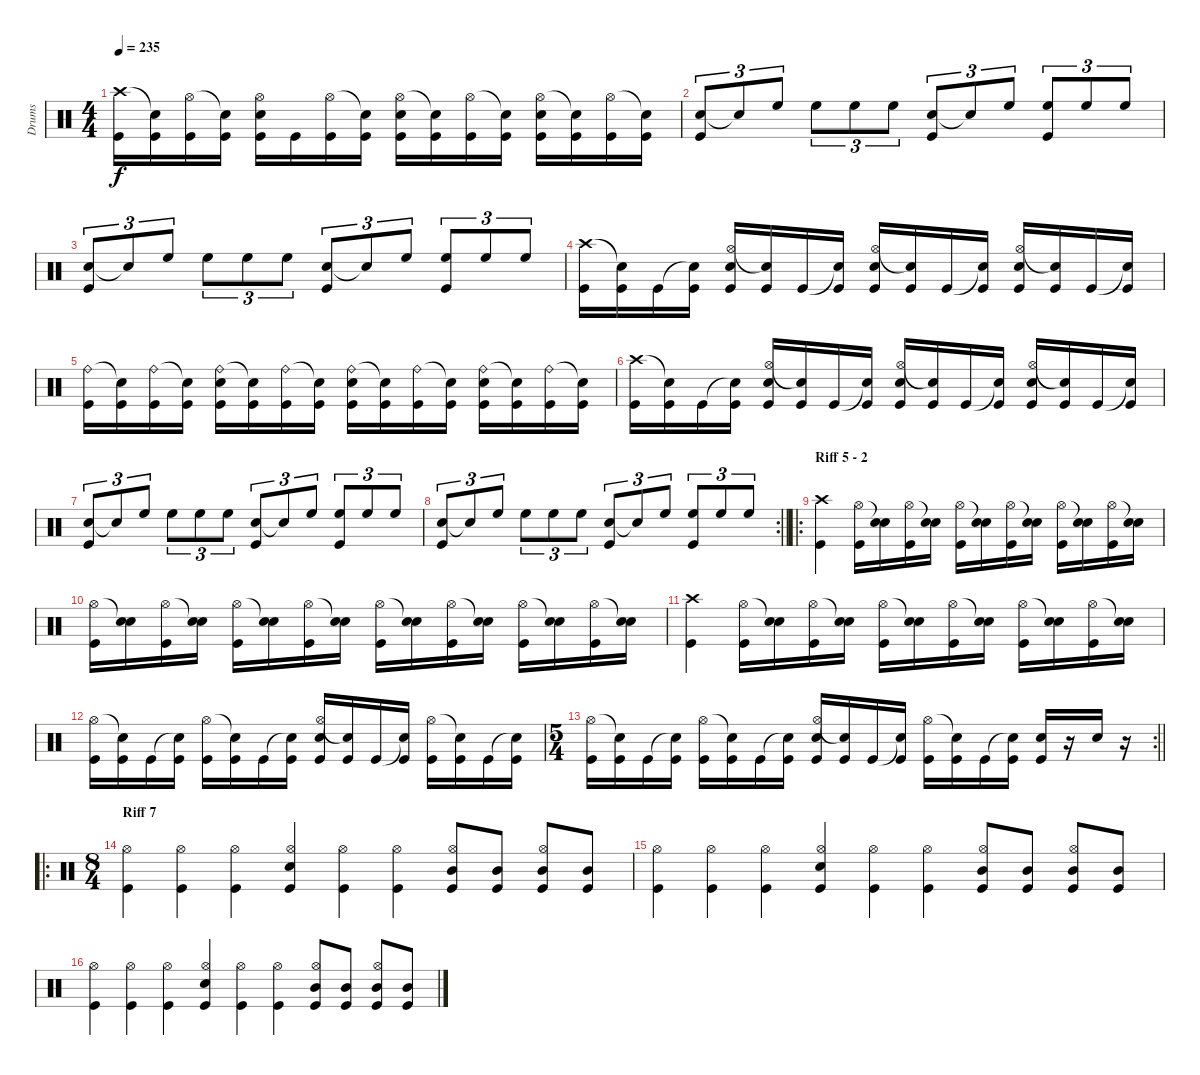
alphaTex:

\track ("Drums" "Drums") {instrument percussion}
\staff {score}
\articulation defaults
\ts (4 4)
\tempo 235
\clef neutral
\ks c
("Crash high (hit)" "Kick (hit)").16{dy f} ("Snare (hit)"{t} "Kick (hit)").16 ("Hi-Hat (open)" "Kick (hit)").16 ("Snare (hit)"{t} "Kick (hit)").16 ("Hi-Hat (open)" "Electric Snare (hit)" "Kick (hit)").16 "Kick (hit)".16 ("Hi-Hat (open)" "Kick (hit)").16 ("Snare (hit)"{t} "Kick (hit)").16 ("Hi-Hat (open)" "Electric Snare (hit)" "Kick (hit)").16 ("Snare (hit)"{t} "Kick (hit)").16 ("Hi-Hat (open)" "Kick (hit)").16 ("Snare (hit)"{t} "Kick (hit)").16 ("Hi-Hat (open)" "Electric Snare (hit)" "Kick (hit)").16 ("Snare (hit)"{t} "Kick (hit)").16 ("Hi-Hat (open)" "Kick (hit)").16 ("Snare (hit)"{t} "Kick (hit)").16 |
("Electric Snare (hit)" "Kick (hit)").8{tu (3 2)} "Snare (hit)"{t}.8{tu (3 2)} "High Floor Tom (hit)".8{tu (3 2)} "High Floor Tom (hit)".8{tu (3 2)} "High Floor Tom (hit)".8{tu (3 2)} "High Floor Tom (hit)".8{tu (3 2)} ("Electric Snare (hit)" "Kick (hit)").8{tu (3 2)} "Snare (hit)"{t}.8{tu (3 2)} "High Floor Tom (hit)".8{tu (3 2)} ("High Floor Tom (hit)" "Kick (hit)").8{tu (3 2)} "High Floor Tom (hit)".8{tu (3 2)} "High Floor Tom (hit)".8{tu (3 2)} |
("Electric Snare (hit)" "Kick (hit)").8{tu (3 2)} "Snare (hit)"{t}.8{tu (3 2)} "High Floor Tom (hit)".8{tu (3 2)} "High Floor Tom (hit)".8{tu (3 2)} "High Floor Tom (hit)".8{tu (3 2)} "High Floor Tom (hit)".8{tu (3 2)} ("Electric Snare (hit)" "Kick (hit)").8{tu (3 2)} "Snare (hit)"{t}.8{tu (3 2)} "High Floor Tom (hit)".8{tu (3 2)} ("High Floor Tom (hit)" "Kick (hit)").8{tu (3 2)} "High Floor Tom (hit)".8{tu (3 2)} "High Floor Tom (hit)".8{tu (3 2)} |
("Crash high (hit)" "Kick (hit)").16 ("Snare (hit)"{t} "Kick (hit)").16 "Kick (hit)".16 ("Snare (hit)"{t} "Kick (hit)").16 ("Hi-Hat (open)" "Electric Snare (hit)" "Kick (hit)").16 ("Snare (hit)"{t} "Kick (hit)").16 "Kick (hit)".16 ("Snare (hit)"{t} "Kick (hit)").16 ("Hi-Hat (open)" "Electric Snare (hit)" "Kick (hit)").16 ("Snare (hit)"{t} "Kick (hit)").16 "Kick (hit)".16 ("Snare (hit)"{t} "Kick (hit)").16 ("Hi-Hat (open)" "Electric Snare (hit)" "Kick (hit)").16 ("Snare (hit)"{t} "Kick (hit)").16 "Kick (hit)".16 ("Snare (hit)"{t} "Kick (hit)").16 |
("Ride (bell)" "Kick (hit)").16 ("Snare (hit)"{t} "Kick (hit)").16 ("Ride (bell)" "Kick (hit)").16 ("Snare (hit)"{t} "Kick (hit)").16 ("Ride (bell)" "Electric Snare (hit)" "Kick (hit)").16 ("Snare (hit)"{t} "Kick (hit)").16 ("Ride (bell)" "Kick (hit)").16 ("Snare (hit)"{t} "Kick (hit)").16 ("Ride (bell)" "Electric Snare (hit)" "Kick (hit)").16 ("Snare (hit)"{t} "Kick (hit)").16 ("Ride (bell)" "Kick (hit)").16 ("Snare (hit)"{t} "Kick (hit)").16 ("Ride (bell)" "Electric Snare (hit)" "Kick (hit)").16 ("Snare (hit)"{t} "Kick (hit)").16 ("Ride (bell)" "Kick (hit)").16 ("Snare (hit)"{t} "Kick (hit)").16 |
("Crash high (hit)" "Kick (hit)").16 ("Snare (hit)"{t} "Kick (hit)").16 "Kick (hit)".16 ("Snare (hit)"{t} "Kick (hit)").16 ("Hi-Hat (open)" "Electric Snare (hit)" "Kick (hit)").16 ("Snare (hit)"{t} "Kick (hit)").16 "Kick (hit)".16 ("Snare (hit)"{t} "Kick (hit)").16 ("Hi-Hat (open)" "Electric Snare (hit)" "Kick (hit)").16 ("Snare (hit)"{t} "Kick (hit)").16 "Kick (hit)".16 ("Snare (hit)"{t} "Kick (hit)").16 ("Hi-Hat (open)" "Electric Snare (hit)" "Kick (hit)").16 ("Snare (hit)"{t} "Kick (hit)").16 "Kick (hit)".16 ("Snare (hit)"{t} "Kick (hit)").16 |
("Electric Snare (hit)" "Kick (hit)").8{tu (3 2)} "Snare (hit)"{t}.8{tu (3 2)} "High Floor Tom (hit)".8{tu (3 2)} "High Floor Tom (hit)".8{tu (3 2)} "High Floor Tom (hit)".8{tu (3 2)} "High Floor Tom (hit)".8{tu (3 2)} ("Electric Snare (hit)" "Kick (hit)").8{tu (3 2)} "Snare (hit)"{t}.8{tu (3 2)} "High Floor Tom (hit)".8{tu (3 2)} ("High Floor Tom (hit)" "Kick (hit)").8{tu (3 2)} "High Floor Tom (hit)".8{tu (3 2)} "High Floor Tom (hit)".8{tu (3 2)} |
\rc 2
\barLineRight lightlight
("Electric Snare (hit)" "Kick (hit)").8{tu (3 2)} "Snare (hit)"{t}.8{tu (3 2)} "High Floor Tom (hit)".8{tu (3 2)} "High Floor Tom (hit)".8{tu (3 2)} "High Floor Tom (hit)".8{tu (3 2)} "High Floor Tom (hit)".8{tu (3 2)} ("Electric Snare (hit)" "Kick (hit)").8{tu (3 2)} "Snare (hit)"{t}.8{tu (3 2)} "High Floor Tom (hit)".8{tu (3 2)} ("High Floor Tom (hit)" "Kick (hit)").8{tu (3 2)} "High Floor Tom (hit)".8{tu (3 2)} "High Floor Tom (hit)".8{tu (3 2)} |
\ro
\section ("" "Riff 5 - 2")
("Crash high (hit)" "Kick (hit)").4 ("Hi-Hat (open)" "Kick (hit)").16 ("Snare (hit)"{t} "Electric Snare (hit)").16 ("Hi-Hat (open)" "Kick (hit)").16 ("Snare (hit)"{t} "Electric Snare (hit)").16 ("Hi-Hat (open)" "Kick (hit)").16 ("Snare (hit)"{t} "Electric Snare (hit)").16 ("Hi-Hat (open)" "Kick (hit)").16 ("Snare (hit)"{t} "Electric Snare (hit)").16 ("Hi-Hat (open)" "Kick (hit)").16 ("Snare (hit)"{t} "Electric Snare (hit)").16 ("Hi-Hat (open)" "Kick (hit)").16 ("Snare (hit)"{t} "Electric Snare (hit)").16 |
("Hi-Hat (open)" "Kick (hit)").16 ("Snare (hit)"{t} "Electric Snare (hit)").16 ("Hi-Hat (open)" "Kick (hit)").16 ("Snare (hit)"{t} "Electric Snare (hit)").16 ("Hi-Hat (open)" "Kick (hit)").16 ("Snare (hit)"{t} "Electric Snare (hit)").16 ("Hi-Hat (open)" "Kick (hit)").16 ("Snare (hit)"{t} "Electric Snare (hit)").16 ("Hi-Hat (open)" "Kick (hit)").16 ("Snare (hit)"{t} "Electric Snare (hit)").16 ("Hi-Hat (open)" "Kick (hit)").16 ("Snare (hit)"{t} "Electric Snare (hit)").16 ("Hi-Hat (open)" "Kick (hit)").16 ("Snare (hit)"{t} "Electric Snare (hit)").16 ("Hi-Hat (open)" "Kick (hit)").16 ("Snare (hit)"{t} "Electric Snare (hit)").16 |
("Crash high (hit)" "Kick (hit)").4 ("Hi-Hat (open)" "Kick (hit)").16 ("Snare (hit)"{t} "Electric Snare (hit)").16 ("Hi-Hat (open)" "Kick (hit)").16 ("Snare (hit)"{t} "Electric Snare (hit)").16 ("Hi-Hat (open)" "Kick (hit)").16 ("Snare (hit)"{t} "Electric Snare (hit)").16 ("Hi-Hat (open)" "Kick (hit)").16 ("Snare (hit)"{t} "Electric Snare (hit)").16 ("Hi-Hat (open)" "Kick (hit)").16 ("Snare (hit)"{t} "Electric Snare (hit)").16 ("Hi-Hat (open)" "Kick (hit)").16 ("Snare (hit)"{t} "Electric Snare (hit)").16 |
("Hi-Hat (open)" "Kick (hit)").16 ("Snare (hit)"{t} "Kick (hit)").16 "Kick (hit)".16 ("Snare (hit)"{t} "Kick (hit)").16 ("Hi-Hat (open)" "Kick (hit)").16 ("Snare (hit)"{t} "Kick (hit)").16 "Kick (hit)".16 ("Snare (hit)"{t} "Kick (hit)").16 ("Hi-Hat (open)" "Electric Snare (hit)" "Kick (hit)").16 ("Snare (hit)"{t} "Kick (hit)").16 "Kick (hit)".16 ("Snare (hit)"{t} "Kick (hit)").16 ("Hi-Hat (open)" "Kick (hit)").16 ("Snare (hit)"{t} "Kick (hit)").16 "Kick (hit)".16 ("Snare (hit)"{t} "Kick (hit)").16 |
\rc 2
\ts (5 4)
\barLineRight lightlight
("Hi-Hat (open)" "Kick (hit)").16 ("Snare (hit)"{t} "Kick (hit)").16 "Kick (hit)".16 ("Snare (hit)"{t} "Kick (hit)").16 ("Hi-Hat (open)" "Kick (hit)").16 ("Snare (hit)"{t} "Kick (hit)").16 "Kick (hit)".16 ("Snare (hit)"{t} "Kick (hit)").16 ("Hi-Hat (open)" "Electric Snare (hit)" "Kick (hit)").16 ("Snare (hit)"{t} "Kick (hit)").16 "Kick (hit)".16 ("Snare (hit)"{t} "Kick (hit)").16 ("Hi-Hat (open)" "Kick (hit)").16 ("Snare (hit)"{t} "Kick (hit)").16 "Kick (hit)".16 ("Snare (hit)"{t} "Kick (hit)").16 ("Electric Snare (hit)" "Kick (hit)").16 r.16 "Electric Snare (hit)".16 r.16 |
\ro
\ts (8 4)
\section ("" "Riff 7 ")
("Hi-Hat (open)" "Kick (hit)").4 ("Hi-Hat (open)" "Kick (hit)").4 ("Hi-Hat (open)" "Kick (hit)").4 ("Hi-Hat (open)" "Electric Snare (hit)" "Kick (hit)").4 ("Hi-Hat (open)" "Kick (hit)").4 ("Hi-Hat (open)" "Kick (hit)").4 ("Hi-Hat (open)" "Mid Tom (hit)" "Kick (hit)").8 ("Mid Tom (hit)" "Kick (hit)").8 ("Hi-Hat (open)" "Mid Tom (hit)" "Kick (hit)").8 ("Mid Tom (hit)" "Kick (hit)").8 |
("Hi-Hat (open)" "Kick (hit)").4 ("Hi-Hat (open)" "Kick (hit)").4 ("Hi-Hat (open)" "Kick (hit)").4 ("Hi-Hat (open)" "Electric Snare (hit)" "Kick (hit)").4 ("Hi-Hat (open)" "Kick (hit)").4 ("Hi-Hat (open)" "Kick (hit)").4 ("Hi-Hat (open)" "Mid Tom (hit)" "Kick (hit)").8 ("Mid Tom (hit)" "Kick (hit)").8 ("Hi-Hat (open)" "Mid Tom (hit)" "Kick (hit)").8 ("Mid Tom (hit)" "Kick (hit)").8 |
("Hi-Hat (open)" "Kick (hit)").4 ("Hi-Hat (open)" "Kick (hit)").4 ("Hi-Hat (open)" "Kick (hit)").4 ("Hi-Hat (open)" "Electric Snare (hit)" "Kick (hit)").4 ("Hi-Hat (open)" "Kick (hit)").4 ("Hi-Hat (open)" "Kick (hit)").4 ("Hi-Hat (open)" "Mid Tom (hit)" "Kick (hit)").8 ("Mid Tom (hit)" "Kick (hit)").8 ("Hi-Hat (open)" "Mid Tom (hit)" "Kick (hit)").8 ("Mid Tom (hit)" "Kick (hit)").8
